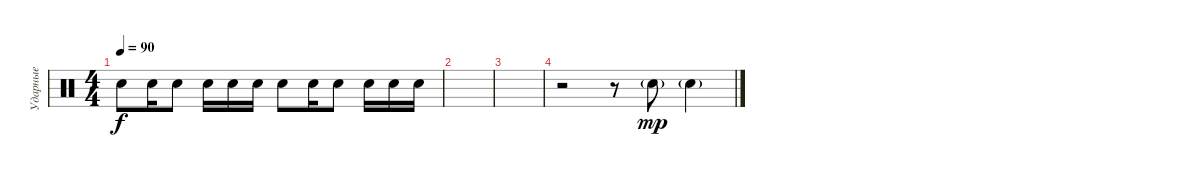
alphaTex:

\track ("Ударные" "Ударные") {instrument percussion}
\staff {score}
\articulation defaults
\ts (4 4)
\tempo 90
\clef neutral
\ks c "Electric Snare (hit)".8{dy f} "Electric Snare (hit)".16 "Electric Snare (hit)".8 "Electric Snare (hit)".16 "Electric Snare (hit)".16 "Electric Snare (hit)".16 "Electric Snare (hit)".8 "Electric Snare (hit)".16 "Electric Snare (hit)".8 "Electric Snare (hit)".16 "Electric Snare (hit)".16 "Electric Snare (hit)".16
|
|
|
r.2 r.8 "Electric Snare (hit)"{g}.8{dy mp} "Electric Snare (hit)"{g}.4
